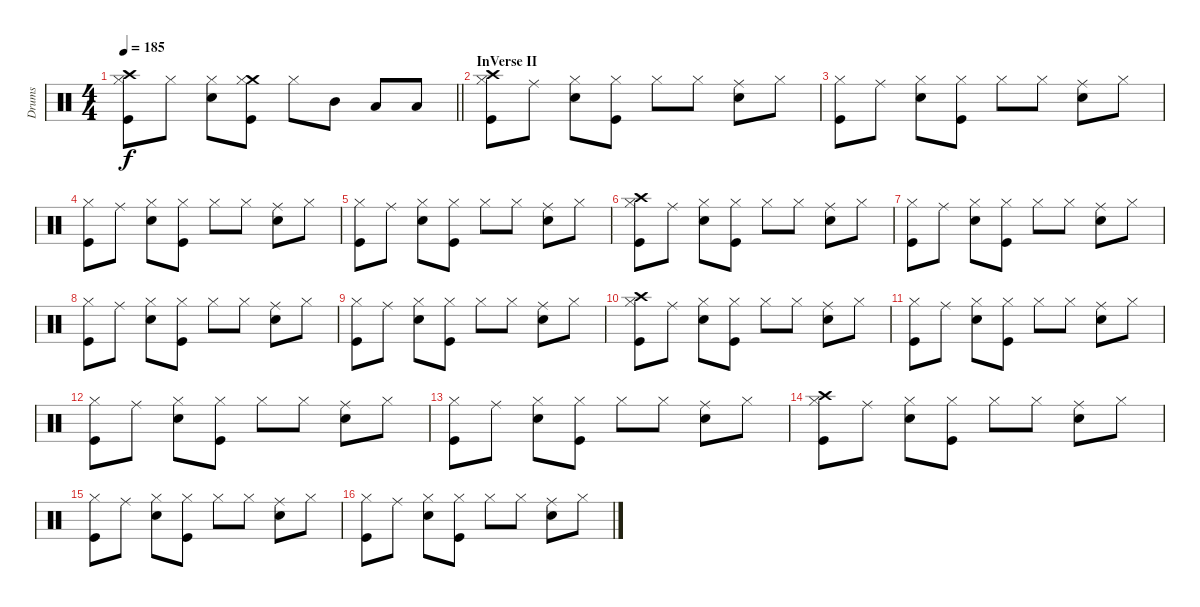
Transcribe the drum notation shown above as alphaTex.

\track ("Drums" "Drums") {instrument percussion}
\staff {score}
\articulation defaults
\ts (4 4)
\tempo 185
\clef neutral
\barLineRight lightlight
\ks c
("Kick (hit)" "Crash high (hit)" "Hi-Hat (closed)").8{dy f} "Hi-Hat (closed)".8 ("Snare (hit) 2" "Hi-Hat (closed)").8 ("Kick (hit)" "Crash medium (hit)" "Hi-Hat (closed)").8 "Hi-Hat (closed)".8 "Mid Tom (hit)".8 "Low Tom (hit)".8 "Low Floor Tom (hit)".8 |
\section ("" "InVerse II")
("Kick (hit)" "Crash high (hit)" "Hi-Hat (closed)").8 "Ride (middle)".8 ("Snare (hit) 2" "Hi-Hat (closed)").8 ("Kick (hit)" "Hi-Hat (closed)").8 "Hi-Hat (closed)".8 "Hi-Hat (closed)".8 ("Snare (hit) 2" "Ride (middle)").8 "Hi-Hat (closed)".8 |
("Kick (hit)" "Hi-Hat (closed)").8 "Ride (middle)".8 ("Snare (hit) 2" "Hi-Hat (closed)").8 ("Kick (hit)" "Hi-Hat (closed)").8 "Hi-Hat (closed)".8 "Hi-Hat (closed)".8 ("Snare (hit) 2" "Ride (middle)").8 "Hi-Hat (closed)".8 |
("Kick (hit)" "Hi-Hat (closed)").8 "Ride (middle)".8 ("Snare (hit) 2" "Hi-Hat (closed)").8 ("Kick (hit)" "Hi-Hat (closed)").8 "Hi-Hat (closed)".8 "Hi-Hat (closed)".8 ("Snare (hit) 2" "Ride (middle)").8 "Hi-Hat (closed)".8 |
("Kick (hit)" "Hi-Hat (closed)").8 "Ride (middle)".8 ("Snare (hit) 2" "Hi-Hat (closed)").8 ("Kick (hit)" "Hi-Hat (closed)").8 "Hi-Hat (closed)".8 "Hi-Hat (closed)".8 ("Snare (hit) 2" "Ride (middle)").8 "Hi-Hat (closed)".8 |
("Kick (hit)" "Crash high (hit)" "Hi-Hat (closed)").8 "Ride (middle)".8 ("Snare (hit) 2" "Hi-Hat (closed)").8 ("Kick (hit)" "Hi-Hat (closed)").8 "Hi-Hat (closed)".8 "Hi-Hat (closed)".8 ("Snare (hit) 2" "Ride (middle)").8 "Hi-Hat (closed)".8 |
("Kick (hit)" "Hi-Hat (closed)").8 "Ride (middle)".8 ("Snare (hit) 2" "Hi-Hat (closed)").8 ("Kick (hit)" "Hi-Hat (closed)").8 "Hi-Hat (closed)".8 "Hi-Hat (closed)".8 ("Snare (hit) 2" "Ride (middle)").8 "Hi-Hat (closed)".8 |
("Kick (hit)" "Hi-Hat (closed)").8 "Ride (middle)".8 ("Snare (hit) 2" "Hi-Hat (closed)").8 ("Kick (hit)" "Hi-Hat (closed)").8 "Hi-Hat (closed)".8 "Hi-Hat (closed)".8 ("Snare (hit) 2" "Ride (middle)").8 "Hi-Hat (closed)".8 |
("Kick (hit)" "Hi-Hat (closed)").8 "Ride (middle)".8 ("Snare (hit) 2" "Hi-Hat (closed)").8 ("Kick (hit)" "Hi-Hat (closed)").8 "Hi-Hat (closed)".8 "Hi-Hat (closed)".8 ("Snare (hit) 2" "Ride (middle)").8 "Hi-Hat (closed)".8 |
("Kick (hit)" "Crash high (hit)" "Hi-Hat (closed)").8 "Ride (middle)".8 ("Snare (hit) 2" "Hi-Hat (closed)").8 ("Kick (hit)" "Hi-Hat (closed)").8 "Hi-Hat (closed)".8 "Hi-Hat (closed)".8 ("Snare (hit) 2" "Ride (middle)").8 "Hi-Hat (closed)".8 |
("Kick (hit)" "Hi-Hat (closed)").8 "Ride (middle)".8 ("Snare (hit) 2" "Hi-Hat (closed)").8 ("Kick (hit)" "Hi-Hat (closed)").8 "Hi-Hat (closed)".8 "Hi-Hat (closed)".8 ("Snare (hit) 2" "Ride (middle)").8 "Hi-Hat (closed)".8 |
("Kick (hit)" "Hi-Hat (closed)").8 "Ride (middle)".8 ("Snare (hit) 2" "Hi-Hat (closed)").8 ("Kick (hit)" "Hi-Hat (closed)").8 "Hi-Hat (closed)".8 "Hi-Hat (closed)".8 ("Snare (hit) 2" "Ride (middle)").8 "Hi-Hat (closed)".8 |
("Kick (hit)" "Hi-Hat (closed)").8 "Ride (middle)".8 ("Snare (hit) 2" "Hi-Hat (closed)").8 ("Kick (hit)" "Hi-Hat (closed)").8 "Hi-Hat (closed)".8 "Hi-Hat (closed)".8 ("Snare (hit) 2" "Ride (middle)").8 "Hi-Hat (closed)".8 |
("Kick (hit)" "Crash high (hit)" "Hi-Hat (closed)").8 "Ride (middle)".8 ("Snare (hit) 2" "Hi-Hat (closed)").8 ("Kick (hit)" "Hi-Hat (closed)").8 "Hi-Hat (closed)".8 "Hi-Hat (closed)".8 ("Snare (hit) 2" "Ride (middle)").8 "Hi-Hat (closed)".8 |
("Kick (hit)" "Hi-Hat (closed)").8 "Ride (middle)".8 ("Snare (hit) 2" "Hi-Hat (closed)").8 ("Kick (hit)" "Hi-Hat (closed)").8 "Hi-Hat (closed)".8 "Hi-Hat (closed)".8 ("Snare (hit) 2" "Ride (middle)").8 "Hi-Hat (closed)".8 |
("Kick (hit)" "Hi-Hat (closed)").8 "Ride (middle)".8 ("Snare (hit) 2" "Hi-Hat (closed)").8 ("Kick (hit)" "Hi-Hat (closed)").8 "Hi-Hat (closed)".8 "Hi-Hat (closed)".8 ("Snare (hit) 2" "Ride (middle)").8 "Hi-Hat (closed)".8
